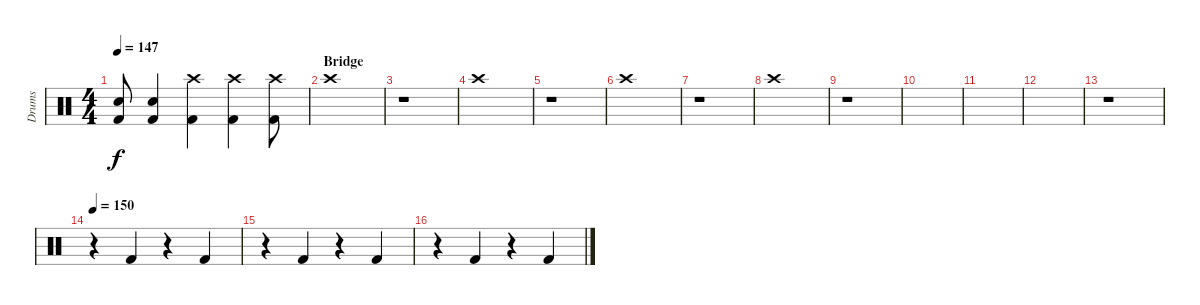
\track ("Drums" "Drums") {instrument percussion}
\staff {score}
\articulation defaults
\ts (4 4)
\tempo 147
\clef neutral
\ks c
("Snare (hit) 2" "Kick (hit) 2").8{dy f} ("Snare (hit) 2" "Kick (hit) 2").4 ("Crash high (hit)" "Kick (hit) 2").4 ("Crash high (hit)" "Kick (hit) 2").4 ("Crash high (hit)" "Kick (hit) 2").8 |
\section ("" "Bridge")
"Crash high (hit)".1 |
r.1 |
"Crash high (hit)".1 |
r.1 |
"Crash high (hit)".1 |
r.1 |
"Crash high (hit)".1 |
r.1 |
|
|
|
r.1 |
\tempo 150
r.4 "Kick (hit) 2".4 r.4 "Kick (hit) 2".4 |
r.4 "Kick (hit) 2".4 r.4 "Kick (hit) 2".4 |
r.4 "Kick (hit) 2".4 r.4 "Kick (hit) 2".4
